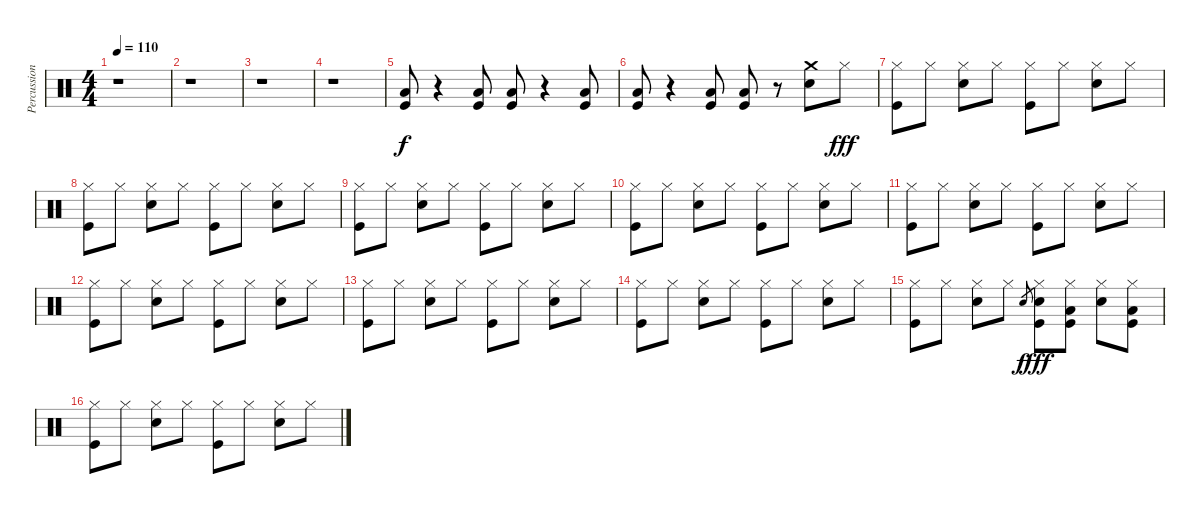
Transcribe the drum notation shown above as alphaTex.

\track ("Percussion" "Percussion") {instrument percussion}
\staff {score}
\articulation defaults
\ts (4 4)
\tempo 110
\clef neutral
\ks c
r.1{dy f} |
r.1 |
r.1 |
r.1 |
("Low Floor Tom (hit)" "Kick (hit)").8 r.4 ("Low Floor Tom (hit)" "Kick (hit)").8 ("Low Floor Tom (hit)" "Kick (hit)").8 r.4 ("Low Floor Tom (hit)" "Kick (hit)").8 |
("Low Floor Tom (hit)" "Kick (hit)").8 r.4 ("Low Floor Tom (hit)" "Kick (hit)").8 ("Low Floor Tom (hit)" "Kick (hit)").8 r.8 ("Crash medium (hit)" "Snare (hit) 2").8 "Hi-Hat (closed)".8{dy fff} |
("Hi-Hat (closed)" "Kick (hit)").8 "Hi-Hat (closed)".8 ("Hi-Hat (closed)" "Snare (hit) 2").8 "Hi-Hat (closed)".8 ("Hi-Hat (closed)" "Kick (hit)").8 "Hi-Hat (closed)".8 ("Hi-Hat (closed)" "Snare (hit) 2").8 "Hi-Hat (closed)".8 |
("Hi-Hat (closed)" "Kick (hit)").8 "Hi-Hat (closed)".8 ("Hi-Hat (closed)" "Snare (hit) 2").8 "Hi-Hat (closed)".8 ("Hi-Hat (closed)" "Kick (hit)").8 "Hi-Hat (closed)".8 ("Hi-Hat (closed)" "Snare (hit) 2").8 "Hi-Hat (closed)".8 |
("Hi-Hat (closed)" "Kick (hit)").8 "Hi-Hat (closed)".8 ("Hi-Hat (closed)" "Snare (hit) 2").8 "Hi-Hat (closed)".8 ("Hi-Hat (closed)" "Kick (hit)").8 "Hi-Hat (closed)".8 ("Hi-Hat (closed)" "Snare (hit) 2").8 "Hi-Hat (closed)".8 |
("Hi-Hat (closed)" "Kick (hit)").8 "Hi-Hat (closed)".8 ("Hi-Hat (closed)" "Snare (hit) 2").8 "Hi-Hat (closed)".8 ("Hi-Hat (closed)" "Kick (hit)").8 "Hi-Hat (closed)".8 ("Hi-Hat (closed)" "Snare (hit) 2").8 "Hi-Hat (closed)".8 |
("Hi-Hat (closed)" "Kick (hit)").8 "Hi-Hat (closed)".8 ("Hi-Hat (closed)" "Snare (hit) 2").8 "Hi-Hat (closed)".8 ("Hi-Hat (closed)" "Kick (hit)").8 "Hi-Hat (closed)".8 ("Hi-Hat (closed)" "Snare (hit) 2").8 "Hi-Hat (closed)".8 |
("Hi-Hat (closed)" "Kick (hit)").8 "Hi-Hat (closed)".8 ("Hi-Hat (closed)" "Snare (hit) 2").8 "Hi-Hat (closed)".8 ("Hi-Hat (closed)" "Kick (hit)").8 "Hi-Hat (closed)".8 ("Hi-Hat (closed)" "Snare (hit) 2").8 "Hi-Hat (closed)".8 |
("Hi-Hat (closed)" "Kick (hit)").8 "Hi-Hat (closed)".8 ("Hi-Hat (closed)" "Snare (hit) 2").8 "Hi-Hat (closed)".8 ("Hi-Hat (closed)" "Kick (hit)").8 "Hi-Hat (closed)".8 ("Hi-Hat (closed)" "Snare (hit) 2").8 "Hi-Hat (closed)".8 |
("Hi-Hat (closed)" "Kick (hit)").8 "Hi-Hat (closed)".8 ("Hi-Hat (closed)" "Snare (hit) 2").8 "Hi-Hat (closed)".8 ("Hi-Hat (closed)" "Kick (hit)").8 "Hi-Hat (closed)".8 ("Hi-Hat (closed)" "Snare (hit) 2").8 "Hi-Hat (closed)".8 |
("Hi-Hat (closed)" "Kick (hit)").8 "Hi-Hat (closed)".8 ("Hi-Hat (closed)" "Snare (hit) 2").8 "Hi-Hat (closed)".8 "Snare (hit) 2".8{gr dy f} ("Hi-Hat (closed)" "Snare (hit) 2" "Kick (hit)").8{dy fff} ("Hi-Hat (closed)" "Low Floor Tom (hit)" "Kick (hit)").8 ("Hi-Hat (closed)" "Snare (hit) 2").8 ("Hi-Hat (closed)" "Low Floor Tom (hit)" "Kick (hit)").8 |
("Hi-Hat (closed)" "Kick (hit)").8 "Hi-Hat (closed)".8 ("Hi-Hat (closed)" "Snare (hit) 2").8 "Hi-Hat (closed)".8 ("Hi-Hat (closed)" "Kick (hit)").8 "Hi-Hat (closed)".8 ("Hi-Hat (closed)" "Snare (hit) 2").8 "Hi-Hat (closed)".8
